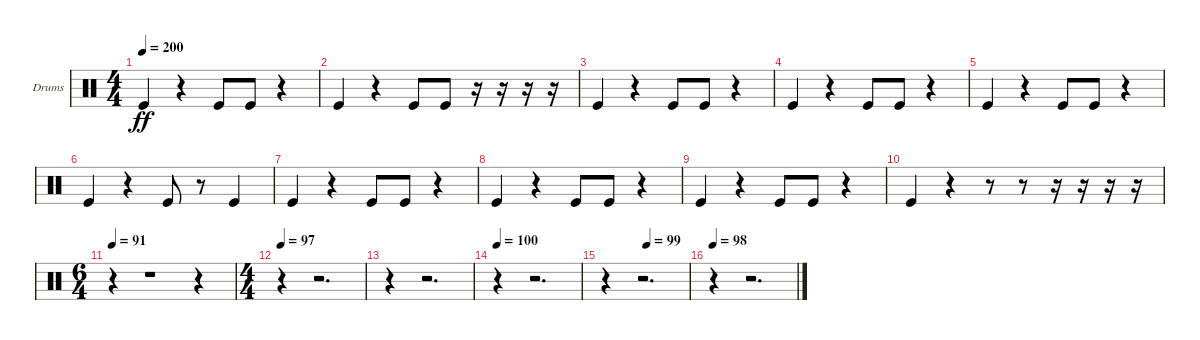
\bracketExtendMode groupsimilarinstruments
\firstSystemTrackNameOrientation horizontal
\otherSystemsTrackNameOrientation horizontal
\track ("Drumkit" "Drums") {instrument percussion}
\staff {score}
\articulation defaults
\ts (4 4)
\tempo 200
\clef neutral
\ks c "Kick (hit)".4{dy ff}
r.4 "Kick (hit)".8 "Kick (hit)".8 r.4 |
"Kick (hit)".4 r.4 "Kick (hit)".8 "Kick (hit)".8 r.16 r.16 r.16 r.16 |
"Kick (hit)".4 r.4 "Kick (hit)".8 "Kick (hit)".8 r.4 |
"Kick (hit)".4 r.4 "Kick (hit)".8 "Kick (hit)".8 r.4 |
"Kick (hit)".4 r.4 "Kick (hit)".8 "Kick (hit)".8 r.4 |
"Kick (hit)".4 r.4 "Kick (hit)".8 r.8 "Kick (hit)".4 |
"Kick (hit)".4 r.4 "Kick (hit)".8 "Kick (hit)".8 r.4 |
"Kick (hit)".4 r.4 "Kick (hit)".8 "Kick (hit)".8 r.4 |
"Kick (hit)".4 r.4 "Kick (hit)".8 "Kick (hit)".8 r.4 |
"Kick (hit)".4 r.4 r.8 r.8 r.16 r.16 r.16 r.16 |
\ts (6 4)
\beaming (8 6 6)
\tempo 91
r.4 r.1 r.4 |
\ts (4 4)
\beaming (8 2 2 2 2)
\tempo 97
r.4 r.2{d} |
r.4 r.2{d} |
\tempo 100
r.4 r.2{d} |
\tempo (99 0.5)
r.4 r.2{d} |
\tempo 98
r.4 r.2{d}
